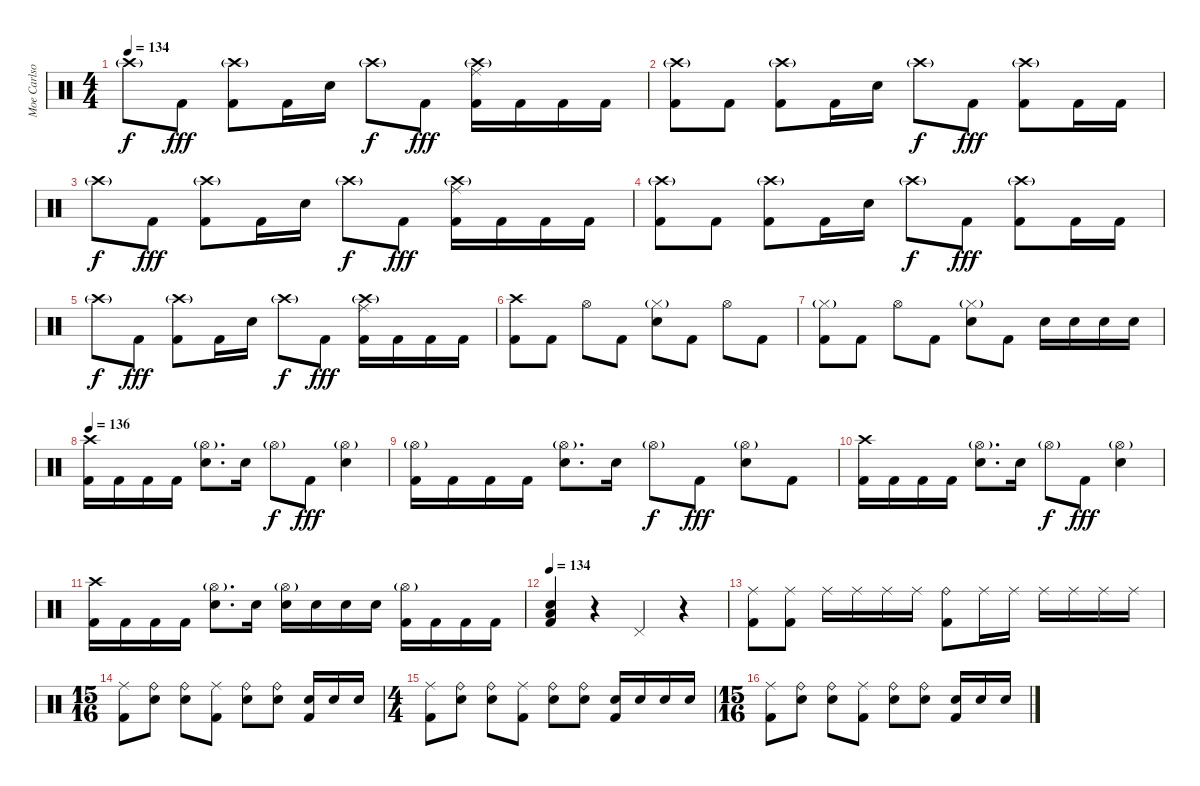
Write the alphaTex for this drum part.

\track ("Moe Carlson" "Moe Carlso") {instrument percussion}
\staff {score}
\articulation defaults
\ts (4 4)
\tempo 134
\clef neutral
\ks c "Crash high (hit)"{g}.8{dy f} "Kick (hit) 2".8{dy fff}
("Crash high (hit)"{g} "Kick (hit) 2").8 "Kick (hit) 2".16 "Electric Snare (hit)".16 "Crash high (hit)"{g}.8{dy f} "Kick (hit) 2".8{dy fff} ("Crash high (hit)"{g} "Ride (middle)" "Kick (hit) 2").16 "Kick (hit) 2".16 "Kick (hit) 2".16 "Kick (hit) 2".16 |
("Crash high (hit)"{g} "Kick (hit) 2").8 "Kick (hit) 2".8 ("Crash high (hit)"{g} "Kick (hit) 2").8 "Kick (hit) 2".16 "Electric Snare (hit)".16 "Crash high (hit)"{g}.8{dy f} "Kick (hit) 2".8{dy fff} ("Crash high (hit)"{g} "Kick (hit) 2").8 "Kick (hit) 2".16 "Kick (hit) 2".16 |
"Crash high (hit)"{g}.8{dy f} "Kick (hit) 2".8{dy fff} ("Crash high (hit)"{g} "Kick (hit) 2").8 "Kick (hit) 2".16 "Electric Snare (hit)".16 "Crash high (hit)"{g}.8{dy f} "Kick (hit) 2".8{dy fff} ("Crash high (hit)"{g} "Ride (middle)" "Kick (hit) 2").16 "Kick (hit) 2".16 "Kick (hit) 2".16 "Kick (hit) 2".16 |
("Crash high (hit)"{g} "Kick (hit) 2").8 "Kick (hit) 2".8 ("Crash high (hit)"{g} "Kick (hit) 2").8 "Kick (hit) 2".16 "Electric Snare (hit)".16 "Crash high (hit)"{g}.8{dy f} "Kick (hit) 2".8{dy fff} ("Crash high (hit)"{g} "Kick (hit) 2").8 "Kick (hit) 2".16 "Kick (hit) 2".16 |
"Crash high (hit)"{g}.8{dy f} "Kick (hit) 2".8{dy fff} ("Crash high (hit)"{g} "Kick (hit) 2").8 "Kick (hit) 2".16 "Electric Snare (hit)".16 "Crash high (hit)"{g}.8{dy f} "Kick (hit) 2".8{dy fff} ("Crash high (hit)"{g} "Ride (middle)" "Kick (hit) 2").16 "Kick (hit) 2".16 "Kick (hit) 2".16 "Kick (hit) 2".16 |
("Crash high (hit)" "Kick (hit) 2").8 "Kick (hit) 2".8 "Hi-Hat (open)".8 "Kick (hit) 2".8 ("Hi-Hat (closed)"{g} "Electric Snare (hit)").8 "Kick (hit) 2".8 "Hi-Hat (open)".8 "Kick (hit) 2".8 |
("Hi-Hat (closed)"{g} "Kick (hit) 2").8 "Kick (hit) 2".8 "Hi-Hat (open)".8 "Kick (hit) 2".8 ("Hi-Hat (closed)"{g} "Electric Snare (hit)").8 "Kick (hit) 2".8 "Electric Snare (hit)".16 "Electric Snare (hit)".16 "Electric Snare (hit)".16 "Electric Snare (hit)".16 |
\tempo 136
("Crash high (hit)" "Kick (hit) 2").16 "Kick (hit) 2".16 "Kick (hit) 2".16 "Kick (hit) 2".16 ("Hi-Hat (open)"{g} "Electric Snare (hit)").8{d} "Electric Snare (hit)".16 "Hi-Hat (open)"{g}.8{dy f} "Kick (hit) 2".8{dy fff} ("Hi-Hat (open)"{g} "Electric Snare (hit)").4 |
("Hi-Hat (open)"{g} "Kick (hit) 2").16 "Kick (hit) 2".16 "Kick (hit) 2".16 "Kick (hit) 2".16 ("Hi-Hat (open)"{g} "Electric Snare (hit)").8{d} "Electric Snare (hit)".16 "Hi-Hat (open)"{g}.8{dy f} "Kick (hit) 2".8{dy fff} ("Hi-Hat (open)"{g} "Electric Snare (hit)").8 "Kick (hit) 2".8 |
("Crash high (hit)" "Kick (hit) 2").16 "Kick (hit) 2".16 "Kick (hit) 2".16 "Kick (hit) 2".16 ("Hi-Hat (open)"{g} "Electric Snare (hit)").8{d} "Electric Snare (hit)".16 "Hi-Hat (open)"{g}.8{dy f} "Kick (hit) 2".8{dy fff} ("Hi-Hat (open)"{g} "Electric Snare (hit)").4 |
("Crash high (hit)" "Kick (hit) 2").16 "Kick (hit) 2".16 "Kick (hit) 2".16 "Kick (hit) 2".16 ("Hi-Hat (open)"{g} "Electric Snare (hit)").8{d} "Electric Snare (hit)".16 ("Hi-Hat (open)"{g} "Electric Snare (hit)").16 "Electric Snare (hit)".16 "Electric Snare (hit)".16 "Electric Snare (hit)".16 ("Hi-Hat (open)"{g} "Kick (hit) 2").16 "Kick (hit) 2".16 "Kick (hit) 2".16 "Kick (hit) 2".16 |
\tempo 134
("Electric Snare (hit)" "Low Floor Tom (hit)" "Kick (hit) 2").4 r.4 "Pedal Hi-Hat (hit)".4 r.4 |
("Ride (middle)" "Kick (hit) 2").8 ("Ride (middle)" "Kick (hit) 2").8 "Ride (middle)".16 "Ride (middle)".16 "Ride (middle)".16 "Ride (middle)".16 ("Ride (bell)" "Kick (hit) 2").8 "Ride (middle)".16 "Ride (middle)".16 "Ride (middle)".16 "Ride (middle)".16 "Ride (middle)".16 "Ride (middle)".16 |
\ts (15 16)
("Ride (middle)" "Kick (hit) 2").8 ("Ride (bell)" "Electric Snare (hit)").8 ("Ride (bell)" "Electric Snare (hit)").8 ("Ride (middle)" "Kick (hit) 2").8 ("Ride (bell)" "Electric Snare (hit)").8 ("Ride (bell)" "Electric Snare (hit)").8 ("Electric Snare (hit)" "Kick (hit) 2").16 "Electric Snare (hit)".16 "Electric Snare (hit)".16 |
\ts (4 4)
("Ride (middle)" "Kick (hit) 2").8 ("Ride (bell)" "Electric Snare (hit)").8 ("Ride (bell)" "Electric Snare (hit)").8 ("Ride (middle)" "Kick (hit) 2").8 ("Ride (bell)" "Electric Snare (hit)").8 ("Ride (bell)" "Electric Snare (hit)").8 ("Electric Snare (hit)" "Kick (hit) 2").16 "Electric Snare (hit)".16 "Electric Snare (hit)".16 "Electric Snare (hit)".16 |
\ts (15 16)
("Ride (middle)" "Kick (hit) 2").8 ("Ride (bell)" "Electric Snare (hit)").8 ("Ride (bell)" "Electric Snare (hit)").8 ("Ride (middle)" "Kick (hit) 2").8 ("Ride (bell)" "Electric Snare (hit)").8 ("Ride (bell)" "Electric Snare (hit)").8 ("Electric Snare (hit)" "Kick (hit) 2").16 "Electric Snare (hit)".16 "Electric Snare (hit)".16
